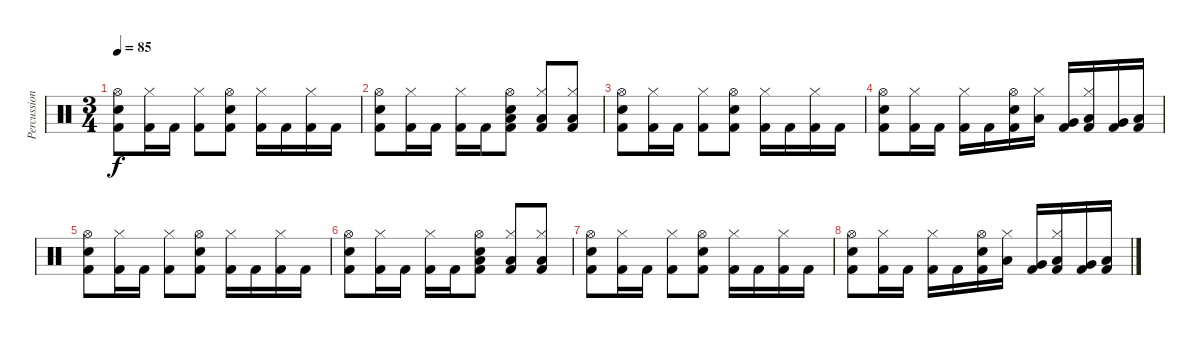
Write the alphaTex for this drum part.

\track ("Percussion" "Percussion") {instrument percussion}
\staff {score}
\articulation defaults
\ts (3 4)
\tempo 85
\clef neutral
\ks c
("Kick (hit) 2" "Snare (hit) 2" "Hi-Hat (open)").8{dy f volume 9} ("Kick (hit) 2" "Hi-Hat (closed)").16 "Kick (hit) 2".16 ("Kick (hit) 2" "Hi-Hat (closed)").8 ("Kick (hit) 2" "Snare (hit) 2" "Hi-Hat (open)").8{volume 8} ("Kick (hit) 2" "Hi-Hat (closed)").16 "Kick (hit) 2".16 ("Kick (hit) 2" "Hi-Hat (closed)").16 "Kick (hit) 2".16 |
("Kick (hit) 2" "Snare (hit) 2" "Hi-Hat (open)").8 ("Kick (hit) 2" "Hi-Hat (closed)").16 "Kick (hit) 2".16 ("Kick (hit) 2" "Hi-Hat (closed)").16 "Kick (hit) 2".16 ("Kick (hit) 2" "Snare (hit) 2" "Hi-Hat (open)" "Low Tom (hit)").8 ("Kick (hit) 2" "Hi-Hat (closed)" "Low Tom (hit)").8 ("Kick (hit) 2" "Hi-Hat (closed)" "Low Tom (hit)").8 |
("Kick (hit) 2" "Snare (hit) 2" "Hi-Hat (open)").8{volume 7} ("Kick (hit) 2" "Hi-Hat (closed)").16 "Kick (hit) 2".16 ("Kick (hit) 2" "Hi-Hat (closed)").8 ("Kick (hit) 2" "Snare (hit) 2" "Hi-Hat (open)").8 ("Kick (hit) 2" "Hi-Hat (closed)").16 "Kick (hit) 2".16 ("Kick (hit) 2" "Hi-Hat (closed)").16 "Kick (hit) 2".16 |
("Kick (hit) 2" "Snare (hit) 2" "Hi-Hat (open)").8 ("Kick (hit) 2" "Hi-Hat (closed)").16 "Kick (hit) 2".16 ("Kick (hit) 2" "Hi-Hat (closed)").16 "Kick (hit) 2".16 ("Kick (hit) 2" "Snare (hit) 2" "Hi-Hat (open)").16 ("Low Tom (hit)" "Hi-Hat (closed)").16 ("Kick (hit) 2" "Very Low Tom (hit)").16 ("Kick (hit) 2" "Low Floor Tom (hit)" "Hi-Hat (closed)").16 ("Kick (hit) 2" "Very Low Tom (hit)").16 ("Kick (hit) 2" "Low Tom (hit)").16 |
("Kick (hit) 2" "Snare (hit) 2" "Hi-Hat (open)").8{volume 6} ("Kick (hit) 2" "Hi-Hat (closed)").16 "Kick (hit) 2".16 ("Kick (hit) 2" "Hi-Hat (closed)").8 ("Kick (hit) 2" "Snare (hit) 2" "Hi-Hat (open)").8 ("Kick (hit) 2" "Hi-Hat (closed)").16 "Kick (hit) 2".16 ("Kick (hit) 2" "Hi-Hat (closed)").16 "Kick (hit) 2".16 |
("Kick (hit) 2" "Snare (hit) 2" "Hi-Hat (open)").8{volume 5} ("Kick (hit) 2" "Hi-Hat (closed)").16 "Kick (hit) 2".16 ("Kick (hit) 2" "Hi-Hat (closed)").16 "Kick (hit) 2".16 ("Kick (hit) 2" "Snare (hit) 2" "Hi-Hat (open)" "Low Tom (hit)").8 ("Kick (hit) 2" "Hi-Hat (closed)" "Low Tom (hit)").8 ("Kick (hit) 2" "Hi-Hat (closed)" "Low Tom (hit)").8 |
("Kick (hit) 2" "Snare (hit) 2" "Hi-Hat (open)").8{volume 4} ("Kick (hit) 2" "Hi-Hat (closed)").16 "Kick (hit) 2".16 ("Kick (hit) 2" "Hi-Hat (closed)").8 ("Kick (hit) 2" "Snare (hit) 2" "Hi-Hat (open)").8 ("Kick (hit) 2" "Hi-Hat (closed)").16 "Kick (hit) 2".16 ("Kick (hit) 2" "Hi-Hat (closed)").16 "Kick (hit) 2".16 |
("Kick (hit) 2" "Snare (hit) 2" "Hi-Hat (open)").8 ("Kick (hit) 2" "Hi-Hat (closed)").16 "Kick (hit) 2".16 ("Kick (hit) 2" "Hi-Hat (closed)").16 "Kick (hit) 2".16{volume 3} ("Kick (hit) 2" "Snare (hit) 2" "Hi-Hat (open)").16 ("Low Tom (hit)" "Hi-Hat (closed)").16 ("Kick (hit) 2" "Very Low Tom (hit)").16 ("Kick (hit) 2" "Low Floor Tom (hit)" "Hi-Hat (closed)").16 ("Kick (hit) 2" "Very Low Tom (hit)").16 ("Kick (hit) 2" "Low Tom (hit)").16
